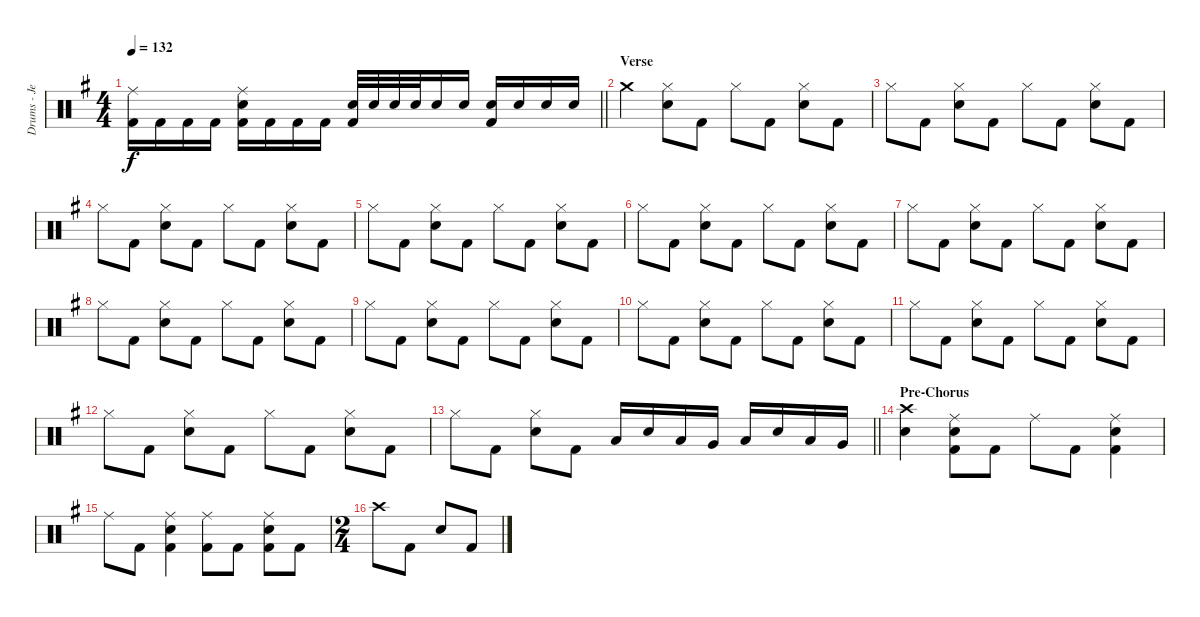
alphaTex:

\track ("Drums - Jeroen Simons " "Drums - Je") {instrument percussion}
\staff {score}
\articulation defaults
\ts (4 4)
\tempo 132
\clef neutral
\barLineRight lightlight
\ks g
("Ride (middle)" "Kick (hit) 2").16{dy f} "Kick (hit) 2".16 "Kick (hit) 2".16 "Kick (hit) 2".16 ("Ride (middle)" "Electric Snare (hit)" "Kick (hit) 2").16 "Kick (hit) 2".16 "Kick (hit) 2".16 "Kick (hit) 2".16 ("Electric Snare (hit)" "Kick (hit) 2").32 "Electric Snare (hit)".32 "Electric Snare (hit)".32 "Electric Snare (hit)".32 "Electric Snare (hit)".16 "Electric Snare (hit)".16 ("Electric Snare (hit)" "Kick (hit) 2").16 "Electric Snare (hit)".16 "Electric Snare (hit)".16 "Electric Snare (hit)".16 |
\section ("" "Verse")
"Crash medium (hit)".4 ("Hi-Hat (closed)" "Electric Snare (hit)").8 "Kick (hit) 2".8 "Hi-Hat (closed)".8 "Kick (hit) 2".8 ("Hi-Hat (closed)" "Electric Snare (hit)").8 "Kick (hit) 2".8 |
"Hi-Hat (closed)".8 "Kick (hit) 2".8 ("Hi-Hat (closed)" "Electric Snare (hit)").8 "Kick (hit) 2".8 "Hi-Hat (closed)".8 "Kick (hit) 2".8 ("Hi-Hat (closed)" "Electric Snare (hit)").8 "Kick (hit) 2".8 |
"Hi-Hat (closed)".8 "Kick (hit) 2".8 ("Hi-Hat (closed)" "Electric Snare (hit)").8 "Kick (hit) 2".8 "Hi-Hat (closed)".8 "Kick (hit) 2".8 ("Hi-Hat (closed)" "Electric Snare (hit)").8 "Kick (hit) 2".8 |
"Hi-Hat (closed)".8 "Kick (hit) 2".8 ("Hi-Hat (closed)" "Electric Snare (hit)").8 "Kick (hit) 2".8 "Hi-Hat (closed)".8 "Kick (hit) 2".8 ("Hi-Hat (closed)" "Electric Snare (hit)").8 "Kick (hit) 2".8 |
"Hi-Hat (closed)".8 "Kick (hit) 2".8 ("Hi-Hat (closed)" "Electric Snare (hit)").8 "Kick (hit) 2".8 "Hi-Hat (closed)".8 "Kick (hit) 2".8 ("Hi-Hat (closed)" "Electric Snare (hit)").8 "Kick (hit) 2".8 |
"Hi-Hat (closed)".8 "Kick (hit) 2".8 ("Hi-Hat (closed)" "Electric Snare (hit)").8 "Kick (hit) 2".8 "Hi-Hat (closed)".8 "Kick (hit) 2".8 ("Hi-Hat (closed)" "Electric Snare (hit)").8 "Kick (hit) 2".8 |
"Hi-Hat (closed)".8 "Kick (hit) 2".8 ("Hi-Hat (closed)" "Electric Snare (hit)").8 "Kick (hit) 2".8 "Hi-Hat (closed)".8 "Kick (hit) 2".8 ("Hi-Hat (closed)" "Electric Snare (hit)").8 "Kick (hit) 2".8 |
"Hi-Hat (closed)".8 "Kick (hit) 2".8 ("Hi-Hat (closed)" "Electric Snare (hit)").8 "Kick (hit) 2".8 "Hi-Hat (closed)".8 "Kick (hit) 2".8 ("Hi-Hat (closed)" "Electric Snare (hit)").8 "Kick (hit) 2".8 |
"Hi-Hat (closed)".8 "Kick (hit) 2".8 ("Hi-Hat (closed)" "Electric Snare (hit)").8 "Kick (hit) 2".8 "Hi-Hat (closed)".8 "Kick (hit) 2".8 ("Hi-Hat (closed)" "Electric Snare (hit)").8 "Kick (hit) 2".8 |
"Hi-Hat (closed)".8 "Kick (hit) 2".8 ("Hi-Hat (closed)" "Electric Snare (hit)").8 "Kick (hit) 2".8 "Hi-Hat (closed)".8 "Kick (hit) 2".8 ("Hi-Hat (closed)" "Electric Snare (hit)").8 "Kick (hit) 2".8 |
"Hi-Hat (closed)".8 "Kick (hit) 2".8 ("Hi-Hat (closed)" "Electric Snare (hit)").8 "Kick (hit) 2".8 "Hi-Hat (closed)".8 "Kick (hit) 2".8 ("Hi-Hat (closed)" "Electric Snare (hit)").8 "Kick (hit) 2".8 |
\barLineRight lightlight "Hi-Hat (closed)".8 "Kick (hit) 2".8
("Hi-Hat (closed)" "Electric Snare (hit)").8 "Kick (hit) 2".8 "Low Tom (hit)".16 "Electric Snare (hit)".16 "Low Tom (hit)".16 "Very Low Tom (hit)".16 "Low Tom (hit)".16 "Electric Snare (hit)".16 "Low Tom (hit)".16 "Very Low Tom (hit)".16 |
\section ("" "Pre-Chorus")
("Crash high (hit)" "Electric Snare (hit)").4 ("Ride (middle)" "Electric Snare (hit)" "Kick (hit) 2").8 "Kick (hit) 2".8 "Ride (middle)".8 "Kick (hit) 2".8 ("Ride (middle)" "Electric Snare (hit)" "Kick (hit) 2").4 |
"Ride (middle)".8 "Kick (hit) 2".8 ("Ride (middle)" "Electric Snare (hit)" "Kick (hit) 2").4 ("Ride (middle)" "Kick (hit) 2").8 "Kick (hit) 2".8 ("Ride (middle)" "Electric Snare (hit)" "Kick (hit) 2").8 "Kick (hit) 2".8 |
\ts (2 4)
"Crash high (hit)".8 "Kick (hit) 2".8 "Electric Snare (hit)".8 "Kick (hit) 2".8
